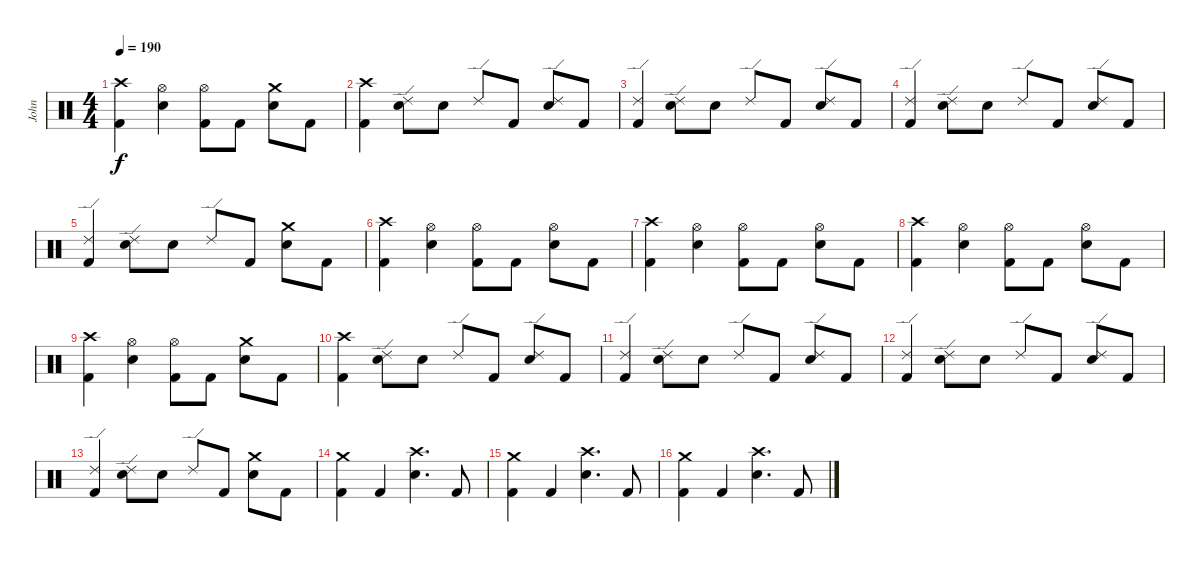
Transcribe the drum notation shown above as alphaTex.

\track ("John" "John") {instrument percussion}
\staff {score}
\articulation defaults
\ts (4 4)
\tempo 190
\clef neutral
\ks c
("Kick (hit) 2" "Crash high (hit)").4{dy f} ("Snare (hit) 2" "Hi-Hat (open)").4 ("Kick (hit) 2" "Hi-Hat (open)").8 "Kick (hit) 2".8 ("Snare (hit) 2" "Crash medium (hit)").8 "Kick (hit) 2".8 |
("Kick (hit) 2" "Crash high (hit)").4 ("Snare (hit) 2" "Ride (edge) 2").8 "Snare (hit) 2".8 "Ride (edge) 2".8 "Kick (hit) 2".8 ("Snare (hit) 2" "Ride (edge) 2").8 "Kick (hit) 2".8 |
("Kick (hit) 2" "Ride (edge) 2").4 ("Snare (hit) 2" "Ride (edge) 2").8 "Snare (hit) 2".8 "Ride (edge) 2".8 "Kick (hit) 2".8 ("Snare (hit) 2" "Ride (edge) 2").8 "Kick (hit) 2".8 |
("Kick (hit) 2" "Ride (edge) 2").4 ("Snare (hit) 2" "Ride (edge) 2").8 "Snare (hit) 2".8 "Ride (edge) 2".8 "Kick (hit) 2".8 ("Snare (hit) 2" "Ride (edge) 2").8 "Kick (hit) 2".8 |
("Kick (hit) 2" "Ride (edge) 2").4 ("Snare (hit) 2" "Ride (edge) 2").8 "Snare (hit) 2".8 "Ride (edge) 2".8 "Kick (hit) 2".8 ("Snare (hit) 2" "Crash medium (hit)").8 "Kick (hit) 2".8 |
("Kick (hit) 2" "Crash high (hit)").4 ("Snare (hit) 2" "Hi-Hat (open)").4 ("Kick (hit) 2" "Hi-Hat (open)").8 "Kick (hit) 2".8 ("Snare (hit) 2" "Hi-Hat (open)").8 "Kick (hit) 2".8 |
("Kick (hit) 2" "Crash high (hit)").4 ("Snare (hit) 2" "Hi-Hat (open)").4 ("Kick (hit) 2" "Hi-Hat (open)").8 "Kick (hit) 2".8 ("Snare (hit) 2" "Hi-Hat (open)").8 "Kick (hit) 2".8 |
("Kick (hit) 2" "Crash high (hit)").4 ("Snare (hit) 2" "Hi-Hat (open)").4 ("Kick (hit) 2" "Hi-Hat (open)").8 "Kick (hit) 2".8 ("Snare (hit) 2" "Hi-Hat (open)").8 "Kick (hit) 2".8 |
("Kick (hit) 2" "Crash high (hit)").4 ("Snare (hit) 2" "Hi-Hat (open)").4 ("Kick (hit) 2" "Hi-Hat (open)").8 "Kick (hit) 2".8 ("Snare (hit) 2" "Crash medium (hit)").8 "Kick (hit) 2".8 |
("Kick (hit) 2" "Crash high (hit)").4 ("Snare (hit) 2" "Ride (edge) 2").8 "Snare (hit) 2".8 "Ride (edge) 2".8 "Kick (hit) 2".8 ("Snare (hit) 2" "Ride (edge) 2").8 "Kick (hit) 2".8 |
("Kick (hit) 2" "Ride (edge) 2").4 ("Snare (hit) 2" "Ride (edge) 2").8 "Snare (hit) 2".8 "Ride (edge) 2".8 "Kick (hit) 2".8 ("Snare (hit) 2" "Ride (edge) 2").8 "Kick (hit) 2".8 |
("Kick (hit) 2" "Ride (edge) 2").4 ("Snare (hit) 2" "Ride (edge) 2").8 "Snare (hit) 2".8 "Ride (edge) 2".8 "Kick (hit) 2".8 ("Snare (hit) 2" "Ride (edge) 2").8 "Kick (hit) 2".8 |
("Kick (hit) 2" "Ride (edge) 2").4 ("Snare (hit) 2" "Ride (edge) 2").8 "Snare (hit) 2".8 "Ride (edge) 2".8 "Kick (hit) 2".8 ("Snare (hit) 2" "Crash medium (hit)").8 "Kick (hit) 2".8 |
("Kick (hit) 2" "Crash medium (hit)").4 "Kick (hit) 2".4 ("Snare (hit) 2" "Crash high (hit)").4{d} "Kick (hit) 2".8 |
("Kick (hit) 2" "Crash medium (hit)").4 "Kick (hit) 2".4 ("Snare (hit) 2" "Crash high (hit)").4{d} "Kick (hit) 2".8 |
("Kick (hit) 2" "Crash medium (hit)").4 "Kick (hit) 2".4 ("Snare (hit) 2" "Crash high (hit)").4{d} "Kick (hit) 2".8
